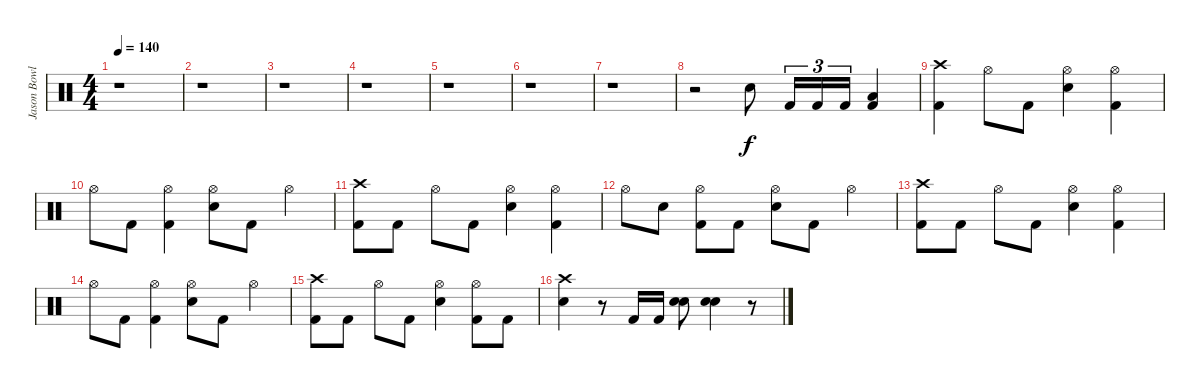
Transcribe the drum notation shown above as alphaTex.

\track ("Jason Bowld" "Jason Bowl") {instrument percussion}
\staff {score}
\articulation defaults
\ts (4 4)
\tempo 140
\clef neutral
\ks c
r.1{dy f} |
r.1 |
r.1 |
r.1 |
r.1 |
r.1 |
r.1 |
r.2 "Snare (hit) 2".8 "Kick (hit) 2".16{tu (3 2)} "Kick (hit) 2".16{tu (3 2)} "Kick (hit) 2".16{tu (3 2)} ("Low Tom (hit)" "Kick (hit) 2").4 |
("Crash high (hit)" "Kick (hit) 2").4 "Hi-Hat (open)".8 "Kick (hit) 2".8 ("Hi-Hat (open)" "Snare (hit) 2").4 ("Hi-Hat (open)" "Kick (hit) 2").4 |
"Hi-Hat (open)".8 "Kick (hit) 2".8 ("Hi-Hat (open)" "Kick (hit) 2").4 ("Hi-Hat (open)" "Snare (hit) 2").8 "Kick (hit) 2".8 "Hi-Hat (open)".4 |
("Crash high (hit)" "Kick (hit) 2").8 "Kick (hit) 2".8 "Hi-Hat (open)".8 "Kick (hit) 2".8 ("Hi-Hat (open)" "Snare (hit) 2").4 ("Hi-Hat (open)" "Kick (hit) 2").4 |
"Hi-Hat (open)".8 "Snare (hit) 2".8 ("Hi-Hat (open)" "Kick (hit) 2").8 "Kick (hit) 2".8 ("Hi-Hat (open)" "Snare (hit) 2").8 "Kick (hit) 2".8 "Hi-Hat (open)".4 |
("Crash high (hit)" "Kick (hit) 2").8 "Kick (hit) 2".8 "Hi-Hat (open)".8 "Kick (hit) 2".8 ("Hi-Hat (open)" "Snare (hit) 2").4 ("Hi-Hat (open)" "Kick (hit) 2").4 |
"Hi-Hat (open)".8 "Kick (hit) 2".8 ("Hi-Hat (open)" "Kick (hit) 2").4 ("Hi-Hat (open)" "Snare (hit) 2").8 "Kick (hit) 2".8 "Hi-Hat (open)".4 |
("Crash high (hit)" "Kick (hit) 2").8 "Kick (hit) 2".8 "Hi-Hat (open)".8 "Kick (hit) 2".8 ("Hi-Hat (open)" "Snare (hit) 2").4 ("Hi-Hat (open)" "Kick (hit) 2").8 "Kick (hit) 2".8 |
("Crash high (hit)" "Snare (hit) 2").4 r.8 "Kick (hit) 2".16 "Kick (hit) 2".16 ("Snare (hit) 2" "Snare (hit) 2").8 ("Snare (hit) 2" "Snare (hit) 2").4 r.8
